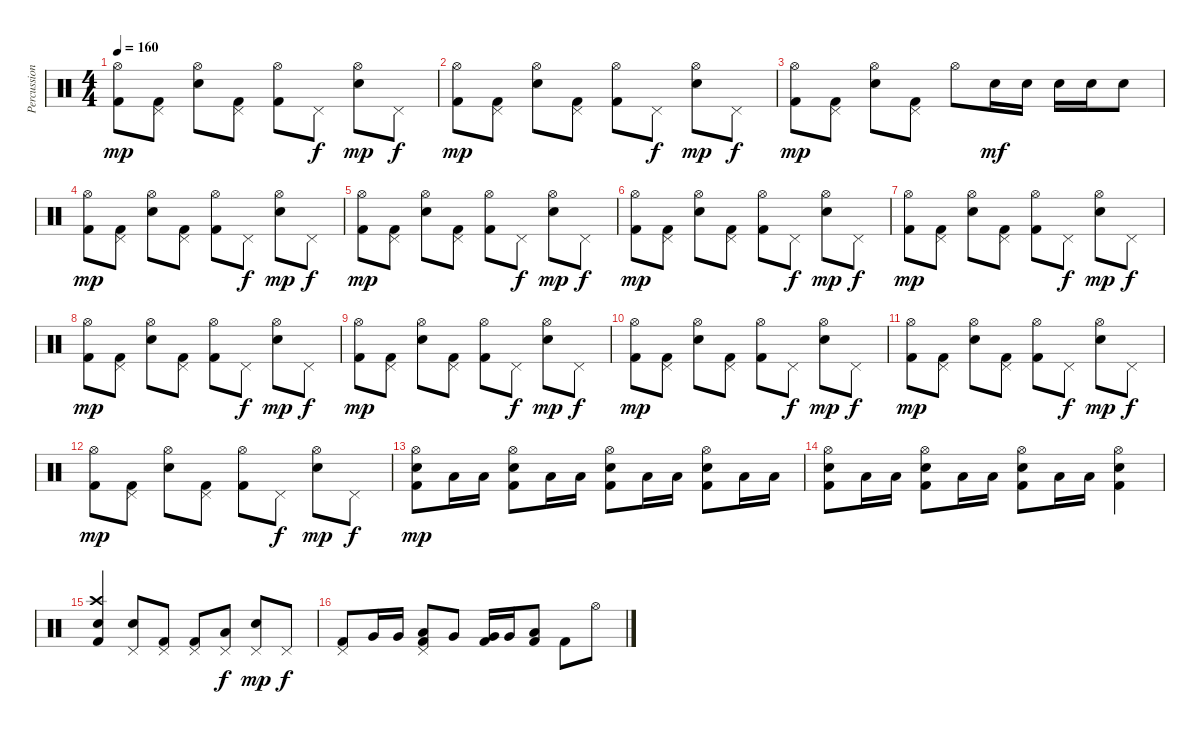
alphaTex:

\track ("Percussions" "Percussion") {instrument percussion}
\staff {score}
\articulation defaults
\ts (4 4)
\tempo 160
\clef neutral
\ks c
("Hi-Hat (open)" "Kick (hit) 2").8{dy mp} ("Pedal Hi-Hat (hit)" "Kick (hit) 2").8 ("Hi-Hat (open)" "Snare (hit) 2").8 ("Pedal Hi-Hat (hit)" "Kick (hit) 2").8 ("Hi-Hat (open)" "Kick (hit) 2").8 "Pedal Hi-Hat (hit)".8{dy f} ("Hi-Hat (open)" "Snare (hit) 2").8{dy mp} "Pedal Hi-Hat (hit)".8{dy f} |
("Hi-Hat (open)" "Kick (hit) 2").8{dy mp} ("Pedal Hi-Hat (hit)" "Kick (hit) 2").8 ("Hi-Hat (open)" "Snare (hit) 2").8 ("Pedal Hi-Hat (hit)" "Kick (hit) 2").8 ("Hi-Hat (open)" "Kick (hit) 2").8 "Pedal Hi-Hat (hit)".8{dy f} ("Hi-Hat (open)" "Snare (hit) 2").8{dy mp} "Pedal Hi-Hat (hit)".8{dy f} |
("Hi-Hat (open)" "Kick (hit) 2").8{dy mp} ("Pedal Hi-Hat (hit)" "Kick (hit) 2").8 ("Hi-Hat (open)" "Snare (hit) 2").8 ("Pedal Hi-Hat (hit)" "Kick (hit) 2").8 "Hi-Hat (open)".8 "Snare (hit) 2".16{dy mf} "Snare (hit) 2".16 "Snare (hit) 2".16 "Snare (hit) 2".16 "Snare (hit) 2".8 |
("Hi-Hat (open)" "Kick (hit) 2").8{dy mp} ("Pedal Hi-Hat (hit)" "Kick (hit) 2").8 ("Hi-Hat (open)" "Snare (hit) 2").8 ("Pedal Hi-Hat (hit)" "Kick (hit) 2").8 ("Hi-Hat (open)" "Kick (hit) 2").8 "Pedal Hi-Hat (hit)".8{dy f} ("Hi-Hat (open)" "Snare (hit) 2").8{dy mp} "Pedal Hi-Hat (hit)".8{dy f} |
("Hi-Hat (open)" "Kick (hit) 2").8{dy mp} ("Pedal Hi-Hat (hit)" "Kick (hit) 2").8 ("Hi-Hat (open)" "Snare (hit) 2").8 ("Pedal Hi-Hat (hit)" "Kick (hit) 2").8 ("Hi-Hat (open)" "Kick (hit) 2").8 "Pedal Hi-Hat (hit)".8{dy f} ("Hi-Hat (open)" "Snare (hit) 2").8{dy mp} "Pedal Hi-Hat (hit)".8{dy f} |
("Hi-Hat (open)" "Kick (hit) 2").8{dy mp} ("Pedal Hi-Hat (hit)" "Kick (hit) 2").8 ("Hi-Hat (open)" "Snare (hit) 2").8 ("Pedal Hi-Hat (hit)" "Kick (hit) 2").8 ("Hi-Hat (open)" "Kick (hit) 2").8 "Pedal Hi-Hat (hit)".8{dy f} ("Hi-Hat (open)" "Snare (hit) 2").8{dy mp} "Pedal Hi-Hat (hit)".8{dy f} |
("Hi-Hat (open)" "Kick (hit) 2").8{dy mp} ("Pedal Hi-Hat (hit)" "Kick (hit) 2").8 ("Hi-Hat (open)" "Snare (hit) 2").8 ("Pedal Hi-Hat (hit)" "Kick (hit) 2").8 ("Hi-Hat (open)" "Kick (hit) 2").8 "Pedal Hi-Hat (hit)".8{dy f} ("Hi-Hat (open)" "Snare (hit) 2").8{dy mp} "Pedal Hi-Hat (hit)".8{dy f} |
("Hi-Hat (open)" "Kick (hit) 2").8{dy mp} ("Pedal Hi-Hat (hit)" "Kick (hit) 2").8 ("Hi-Hat (open)" "Snare (hit) 2").8 ("Pedal Hi-Hat (hit)" "Kick (hit) 2").8 ("Hi-Hat (open)" "Kick (hit) 2").8 "Pedal Hi-Hat (hit)".8{dy f} ("Hi-Hat (open)" "Snare (hit) 2").8{dy mp} "Pedal Hi-Hat (hit)".8{dy f} |
("Hi-Hat (open)" "Kick (hit) 2").8{dy mp} ("Pedal Hi-Hat (hit)" "Kick (hit) 2").8 ("Hi-Hat (open)" "Snare (hit) 2").8 ("Pedal Hi-Hat (hit)" "Kick (hit) 2").8 ("Hi-Hat (open)" "Kick (hit) 2").8 "Pedal Hi-Hat (hit)".8{dy f} ("Hi-Hat (open)" "Snare (hit) 2").8{dy mp} "Pedal Hi-Hat (hit)".8{dy f} |
("Hi-Hat (open)" "Kick (hit) 2").8{dy mp} ("Pedal Hi-Hat (hit)" "Kick (hit) 2").8 ("Hi-Hat (open)" "Snare (hit) 2").8 ("Pedal Hi-Hat (hit)" "Kick (hit) 2").8 ("Hi-Hat (open)" "Kick (hit) 2").8 "Pedal Hi-Hat (hit)".8{dy f} ("Hi-Hat (open)" "Snare (hit) 2").8{dy mp} "Pedal Hi-Hat (hit)".8{dy f} |
("Hi-Hat (open)" "Kick (hit) 2").8{dy mp} ("Pedal Hi-Hat (hit)" "Kick (hit) 2").8 ("Hi-Hat (open)" "Snare (hit) 2").8 ("Pedal Hi-Hat (hit)" "Kick (hit) 2").8 ("Hi-Hat (open)" "Kick (hit) 2").8 "Pedal Hi-Hat (hit)".8{dy f} ("Hi-Hat (open)" "Snare (hit) 2").8{dy mp} "Pedal Hi-Hat (hit)".8{dy f} |
("Hi-Hat (open)" "Kick (hit) 2").8{dy mp} ("Pedal Hi-Hat (hit)" "Kick (hit) 2").8 ("Hi-Hat (open)" "Snare (hit) 2").8 ("Pedal Hi-Hat (hit)" "Kick (hit) 2").8 ("Hi-Hat (open)" "Kick (hit) 2").8 "Pedal Hi-Hat (hit)".8{dy f} ("Hi-Hat (open)" "Snare (hit) 2").8{dy mp} "Pedal Hi-Hat (hit)".8{dy f} |
("Hi-Hat (open)" "Snare (hit) 2" "Kick (hit) 2").8{dy mp} "Low Floor Tom (hit)".16 "Low Floor Tom (hit)".16 ("Hi-Hat (open)" "Snare (hit) 2" "Kick (hit) 2").8 "Low Floor Tom (hit)".16 "Low Floor Tom (hit)".16 ("Hi-Hat (open)" "Snare (hit) 2" "Kick (hit) 2").8 "Low Floor Tom (hit)".16 "Low Floor Tom (hit)".16 ("Hi-Hat (open)" "Snare (hit) 2" "Kick (hit) 2").8 "Low Floor Tom (hit)".16 "Low Floor Tom (hit)".16 |
("Hi-Hat (open)" "Snare (hit) 2" "Kick (hit) 2").8 "Low Floor Tom (hit)".16 "Low Floor Tom (hit)".16 ("Hi-Hat (open)" "Snare (hit) 2" "Kick (hit) 2").8 "Low Floor Tom (hit)".16 "Low Floor Tom (hit)".16 ("Hi-Hat (open)" "Snare (hit) 2" "Kick (hit) 2").8 "Low Floor Tom (hit)".16 "Low Floor Tom (hit)".16 ("Hi-Hat (open)" "Snare (hit) 2" "Kick (hit) 2").4 |
("Crash high (hit)" "Electric Snare (hit)" "Kick (hit) 2").4 ("Pedal Hi-Hat (hit)" "Snare (hit) 2").8 ("Pedal Hi-Hat (hit)" "Kick (hit) 2").8 ("Pedal Hi-Hat (hit)" "Kick (hit) 2").8 ("Pedal Hi-Hat (hit)" "Low Floor Tom (hit)").8{dy f} ("Pedal Hi-Hat (hit)" "Snare (hit) 2").8{dy mp} "Pedal Hi-Hat (hit)".8{dy f} |
("Pedal Hi-Hat (hit)" "Kick (hit) 2").8 "Very Low Tom (hit)".16 "Very Low Tom (hit)".16 ("Pedal Hi-Hat (hit)" "Low Floor Tom (hit)" "Kick (hit) 2").8 "Very Low Tom (hit)".8 ("Very Low Tom (hit)" "Kick (hit) 2").16 "Very Low Tom (hit)".16 ("Low Floor Tom (hit)" "Kick (hit) 2").8 "Kick (hit) 2".8 "Hi-Hat (open)".8
